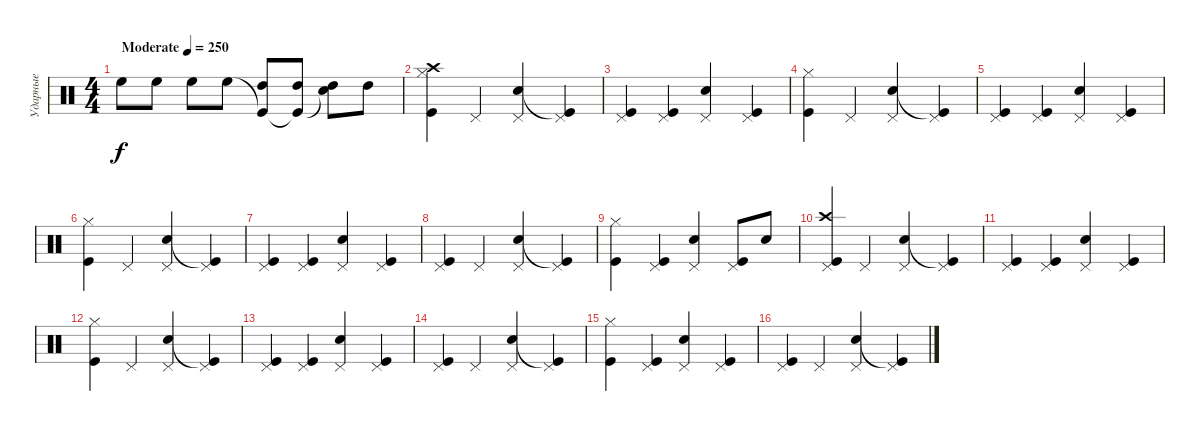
\track ("Ударные" "Ударные") {instrument percussion}
\staff {score}
\articulation defaults
\ts (4 4)
\tempo (250 "Moderate")
\clef neutral
\ks c "High Floor Tom (hit)".8{dy f} "High Floor Tom (hit)".8 "High Floor Tom (hit)".8 "High Floor Tom (hit)".8
("Kick (hit)"{t} "High Tom (hit)").8 ("Kick (hit)"{t} "High Tom (hit)").8 ("Electric Snare (hit)"{t} "High Tom (hit)").8 "High Tom (hit)".8 |
("Kick (hit)" "Hi-Hat (closed)" "Crash high (hit)").4 "Pedal Hi-Hat (hit)".4 ("Electric Snare (hit)" "Pedal Hi-Hat (hit)").4 ("Kick (hit)"{t} "Pedal Hi-Hat (hit)").4 |
("Kick (hit)" "Pedal Hi-Hat (hit)").4 ("Kick (hit)" "Pedal Hi-Hat (hit)").4 ("Electric Snare (hit)" "Pedal Hi-Hat (hit)").4 ("Kick (hit)" "Pedal Hi-Hat (hit)").4 |
("Kick (hit)" "Hi-Hat (closed)").4 "Pedal Hi-Hat (hit)".4 ("Electric Snare (hit)" "Pedal Hi-Hat (hit)").4 ("Kick (hit)"{t} "Pedal Hi-Hat (hit)").4 |
("Kick (hit)" "Pedal Hi-Hat (hit)").4 ("Kick (hit)" "Pedal Hi-Hat (hit)").4 ("Electric Snare (hit)" "Pedal Hi-Hat (hit)").4 ("Kick (hit)" "Pedal Hi-Hat (hit)").4 |
("Kick (hit)" "Hi-Hat (closed)").4 "Pedal Hi-Hat (hit)".4 ("Electric Snare (hit)" "Pedal Hi-Hat (hit)").4 ("Kick (hit)"{t} "Pedal Hi-Hat (hit)").4 |
("Kick (hit)" "Pedal Hi-Hat (hit)").4 ("Kick (hit)" "Pedal Hi-Hat (hit)").4 ("Electric Snare (hit)" "Pedal Hi-Hat (hit)").4 ("Kick (hit)" "Pedal Hi-Hat (hit)").4 |
("Kick (hit)" "Pedal Hi-Hat (hit)").4 "Pedal Hi-Hat (hit)".4 ("Electric Snare (hit)" "Pedal Hi-Hat (hit)").4 ("Kick (hit)"{t} "Pedal Hi-Hat (hit)").4 |
("Kick (hit)" "Hi-Hat (closed)").4 ("Kick (hit)" "Pedal Hi-Hat (hit)").4 ("Electric Snare (hit)" "Pedal Hi-Hat (hit)").4 ("Kick (hit)" "Pedal Hi-Hat (hit)").8 "Electric Snare (hit)".8 |
("Kick (hit)" "Pedal Hi-Hat (hit)" "Crash high (hit)").4 "Pedal Hi-Hat (hit)".4 ("Electric Snare (hit)" "Pedal Hi-Hat (hit)").4 ("Kick (hit)"{t} "Pedal Hi-Hat (hit)").4 |
("Kick (hit)" "Pedal Hi-Hat (hit)").4 ("Kick (hit)" "Pedal Hi-Hat (hit)").4 ("Electric Snare (hit)" "Pedal Hi-Hat (hit)").4 ("Kick (hit)" "Pedal Hi-Hat (hit)").4 |
("Kick (hit)" "Hi-Hat (closed)").4 "Pedal Hi-Hat (hit)".4 ("Electric Snare (hit)" "Pedal Hi-Hat (hit)").4 ("Kick (hit)"{t} "Pedal Hi-Hat (hit)").4 |
("Kick (hit)" "Pedal Hi-Hat (hit)").4 ("Kick (hit)" "Pedal Hi-Hat (hit)").4 ("Electric Snare (hit)" "Pedal Hi-Hat (hit)").4 ("Kick (hit)" "Pedal Hi-Hat (hit)").4 |
("Kick (hit)" "Pedal Hi-Hat (hit)").4 "Pedal Hi-Hat (hit)".4 ("Electric Snare (hit)" "Pedal Hi-Hat (hit)").4 ("Kick (hit)"{t} "Pedal Hi-Hat (hit)").4 |
("Kick (hit)" "Hi-Hat (closed)").4 ("Kick (hit)" "Pedal Hi-Hat (hit)").4 ("Electric Snare (hit)" "Pedal Hi-Hat (hit)").4 ("Kick (hit)" "Pedal Hi-Hat (hit)").4 |
("Kick (hit)" "Pedal Hi-Hat (hit)").4 "Pedal Hi-Hat (hit)".4 ("Electric Snare (hit)" "Pedal Hi-Hat (hit)").4 ("Kick (hit)"{t} "Pedal Hi-Hat (hit)").4
